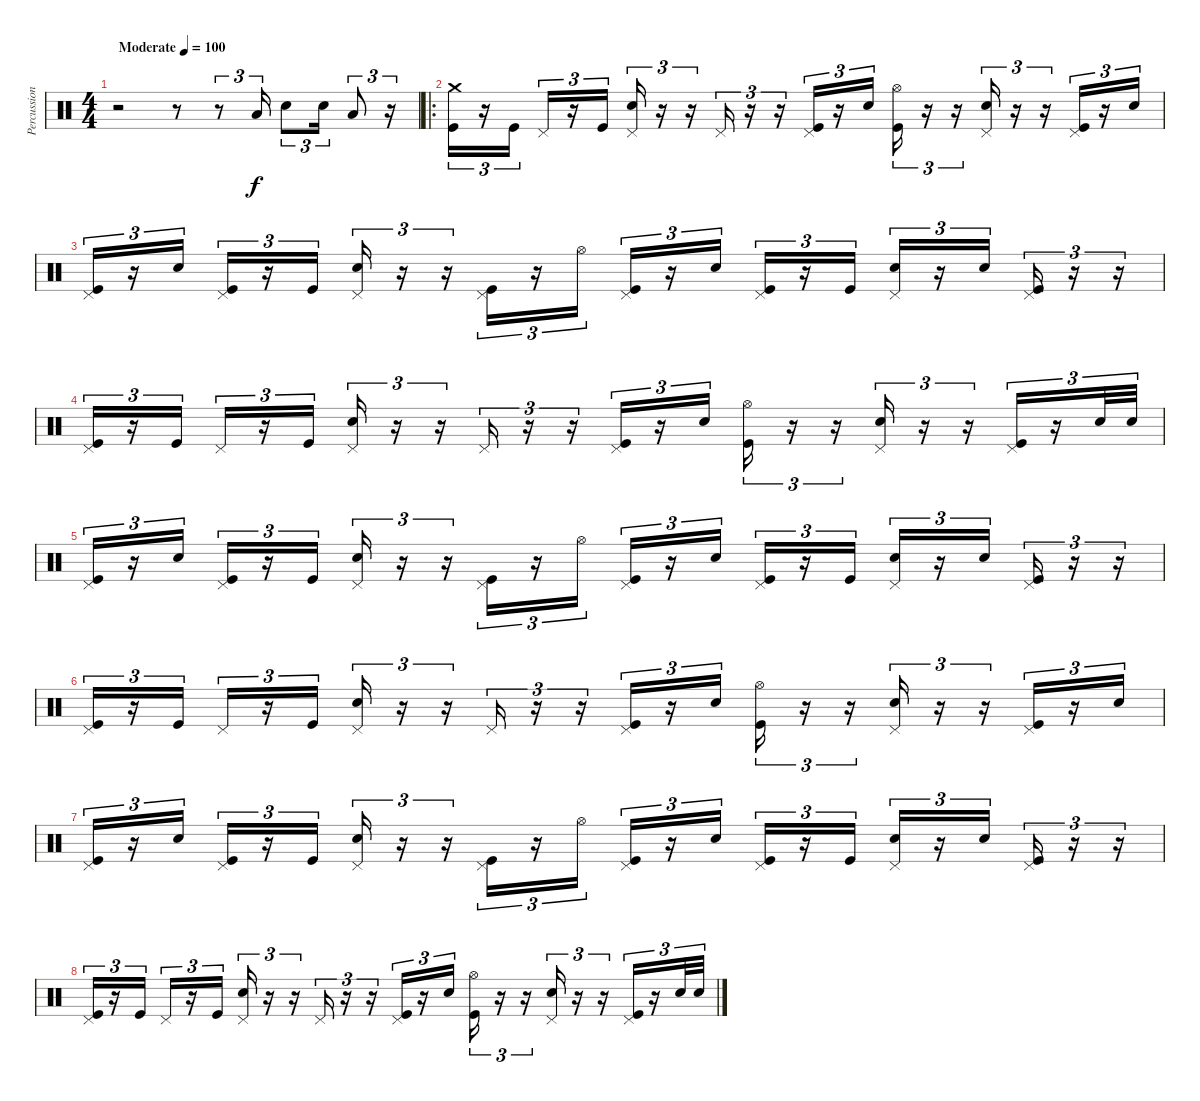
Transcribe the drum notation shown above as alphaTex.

\track ("Percussion" "Percussion") {instrument percussion}
\staff {score}
\articulation defaults
\ts (4 4)
\tempo (100 "Moderate")
\clef neutral
\ks c
r.2{dy f} r.8 r.8{tu (3 2)} "Low Tom (hit)".16{tu (3 2)} "Electric Snare (hit)".8{tu (3 2)} "Electric Snare (hit)".16{tu (3 2)} "Low Floor Tom (hit)".8{tu (3 2)} r.16{tu (3 2)} |
\ro
("Crash medium (hit)" "Kick (hit)").16{tu (3 2)} r.16{tu (3 2)} "Kick (hit)".16{tu (3 2)} "Pedal Hi-Hat (hit)".16{tu (3 2)} r.16{tu (3 2)} "Kick (hit)".16{tu (3 2)} ("Pedal Hi-Hat (hit)" "Electric Snare (hit)").16{tu (3 2)} r.16{tu (3 2)} r.16{tu (3 2)} "Pedal Hi-Hat (hit)".16{tu (3 2)} r.16{tu (3 2)} r.16{tu (3 2)} ("Pedal Hi-Hat (hit)" "Kick (hit)").16{tu (3 2)} r.16{tu (3 2)} "Electric Snare (hit)".16{tu (3 2)} ("Hi-Hat (open)" "Kick (hit)").16{tu (3 2)} r.16{tu (3 2)} r.16{tu (3 2)} ("Pedal Hi-Hat (hit)" "Electric Snare (hit)").16{tu (3 2)} r.16{tu (3 2)} r.16{tu (3 2)} ("Pedal Hi-Hat (hit)" "Kick (hit)").16{tu (3 2)} r.16{tu (3 2)} "Electric Snare (hit)".16{tu (3 2)} |
("Pedal Hi-Hat (hit)" "Kick (hit)").16{tu (3 2)} r.16{tu (3 2)} "Electric Snare (hit)".16{tu (3 2)} ("Pedal Hi-Hat (hit)" "Kick (hit)").16{tu (3 2)} r.16{tu (3 2)} "Kick (hit)".16{tu (3 2)} ("Pedal Hi-Hat (hit)" "Electric Snare (hit)").16{tu (3 2)} r.16{tu (3 2)} r.16{tu (3 2)} ("Pedal Hi-Hat (hit)" "Kick (hit)").16{tu (3 2)} r.16{tu (3 2)} "Hi-Hat (open)".16{tu (3 2)} ("Pedal Hi-Hat (hit)" "Kick (hit)").16{tu (3 2)} r.16{tu (3 2)} "Electric Snare (hit)".16{tu (3 2)} ("Pedal Hi-Hat (hit)" "Kick (hit)").16{tu (3 2)} r.16{tu (3 2)} "Kick (hit)".16{tu (3 2)} ("Pedal Hi-Hat (hit)" "Electric Snare (hit)").16{tu (3 2)} r.16{tu (3 2)} "Electric Snare (hit)".16{tu (3 2)} ("Pedal Hi-Hat (hit)" "Kick (hit)").16{tu (3 2)} r.16{tu (3 2)} r.16{tu (3 2)} |
("Pedal Hi-Hat (hit)" "Kick (hit)").16{tu (3 2)} r.16{tu (3 2)} "Kick (hit)".16{tu (3 2)} "Pedal Hi-Hat (hit)".16{tu (3 2)} r.16{tu (3 2)} "Kick (hit)".16{tu (3 2)} ("Pedal Hi-Hat (hit)" "Electric Snare (hit)").16{tu (3 2)} r.16{tu (3 2)} r.16{tu (3 2)} "Pedal Hi-Hat (hit)".16{tu (3 2)} r.16{tu (3 2)} r.16{tu (3 2)} ("Pedal Hi-Hat (hit)" "Kick (hit)").16{tu (3 2)} r.16{tu (3 2)} "Electric Snare (hit)".16{tu (3 2)} ("Hi-Hat (open)" "Kick (hit)").16{tu (3 2)} r.16{tu (3 2)} r.16{tu (3 2)} ("Pedal Hi-Hat (hit)" "Electric Snare (hit)").16{tu (3 2)} r.16{tu (3 2)} r.16{tu (3 2)} ("Pedal Hi-Hat (hit)" "Kick (hit)").16{tu (3 2)} r.16{tu (3 2)} "Electric Snare (hit)".32{tu (3 2)} "Electric Snare (hit)".32{tu (3 2)} |
("Pedal Hi-Hat (hit)" "Kick (hit)").16{tu (3 2)} r.16{tu (3 2)} "Electric Snare (hit)".16{tu (3 2)} ("Pedal Hi-Hat (hit)" "Kick (hit)").16{tu (3 2)} r.16{tu (3 2)} "Kick (hit)".16{tu (3 2)} ("Pedal Hi-Hat (hit)" "Electric Snare (hit)").16{tu (3 2)} r.16{tu (3 2)} r.16{tu (3 2)} ("Pedal Hi-Hat (hit)" "Kick (hit)").16{tu (3 2)} r.16{tu (3 2)} "Hi-Hat (open)".16{tu (3 2)} ("Pedal Hi-Hat (hit)" "Kick (hit)").16{tu (3 2)} r.16{tu (3 2)} "Electric Snare (hit)".16{tu (3 2)} ("Pedal Hi-Hat (hit)" "Kick (hit)").16{tu (3 2)} r.16{tu (3 2)} "Kick (hit)".16{tu (3 2)} ("Pedal Hi-Hat (hit)" "Electric Snare (hit)").16{tu (3 2)} r.16{tu (3 2)} "Electric Snare (hit)".16{tu (3 2)} ("Pedal Hi-Hat (hit)" "Kick (hit)").16{tu (3 2)} r.16{tu (3 2)} r.16{tu (3 2)} |
("Pedal Hi-Hat (hit)" "Kick (hit)").16{tu (3 2)} r.16{tu (3 2)} "Kick (hit)".16{tu (3 2)} "Pedal Hi-Hat (hit)".16{tu (3 2)} r.16{tu (3 2)} "Kick (hit)".16{tu (3 2)} ("Pedal Hi-Hat (hit)" "Electric Snare (hit)").16{tu (3 2)} r.16{tu (3 2)} r.16{tu (3 2)} "Pedal Hi-Hat (hit)".16{tu (3 2)} r.16{tu (3 2)} r.16{tu (3 2)} ("Pedal Hi-Hat (hit)" "Kick (hit)").16{tu (3 2)} r.16{tu (3 2)} "Electric Snare (hit)".16{tu (3 2)} ("Hi-Hat (open)" "Kick (hit)").16{tu (3 2)} r.16{tu (3 2)} r.16{tu (3 2)} ("Pedal Hi-Hat (hit)" "Electric Snare (hit)").16{tu (3 2)} r.16{tu (3 2)} r.16{tu (3 2)} ("Pedal Hi-Hat (hit)" "Kick (hit)").16{tu (3 2)} r.16{tu (3 2)} "Electric Snare (hit)".16{tu (3 2)} |
("Pedal Hi-Hat (hit)" "Kick (hit)").16{tu (3 2)} r.16{tu (3 2)} "Electric Snare (hit)".16{tu (3 2)} ("Pedal Hi-Hat (hit)" "Kick (hit)").16{tu (3 2)} r.16{tu (3 2)} "Kick (hit)".16{tu (3 2)} ("Pedal Hi-Hat (hit)" "Electric Snare (hit)").16{tu (3 2)} r.16{tu (3 2)} r.16{tu (3 2)} ("Pedal Hi-Hat (hit)" "Kick (hit)").16{tu (3 2)} r.16{tu (3 2)} "Hi-Hat (open)".16{tu (3 2)} ("Pedal Hi-Hat (hit)" "Kick (hit)").16{tu (3 2)} r.16{tu (3 2)} "Electric Snare (hit)".16{tu (3 2)} ("Pedal Hi-Hat (hit)" "Kick (hit)").16{tu (3 2)} r.16{tu (3 2)} "Kick (hit)".16{tu (3 2)} ("Pedal Hi-Hat (hit)" "Electric Snare (hit)").16{tu (3 2)} r.16{tu (3 2)} "Electric Snare (hit)".16{tu (3 2)} ("Pedal Hi-Hat (hit)" "Kick (hit)").16{tu (3 2)} r.16{tu (3 2)} r.16{tu (3 2)} |
("Pedal Hi-Hat (hit)" "Kick (hit)").16{tu (3 2)} r.16{tu (3 2)} "Kick (hit)".16{tu (3 2)} "Pedal Hi-Hat (hit)".16{tu (3 2)} r.16{tu (3 2)} "Kick (hit)".16{tu (3 2)} ("Pedal Hi-Hat (hit)" "Electric Snare (hit)").16{tu (3 2)} r.16{tu (3 2)} r.16{tu (3 2)} "Pedal Hi-Hat (hit)".16{tu (3 2)} r.16{tu (3 2)} r.16{tu (3 2)} ("Pedal Hi-Hat (hit)" "Kick (hit)").16{tu (3 2)} r.16{tu (3 2)} "Electric Snare (hit)".16{tu (3 2)} ("Hi-Hat (open)" "Kick (hit)").16{tu (3 2)} r.16{tu (3 2)} r.16{tu (3 2)} ("Pedal Hi-Hat (hit)" "Electric Snare (hit)").16{tu (3 2)} r.16{tu (3 2)} r.16{tu (3 2)} ("Pedal Hi-Hat (hit)" "Kick (hit)").16{tu (3 2)} r.16{tu (3 2)} "Electric Snare (hit)".32{tu (3 2)} "Electric Snare (hit)".32{tu (3 2)}
